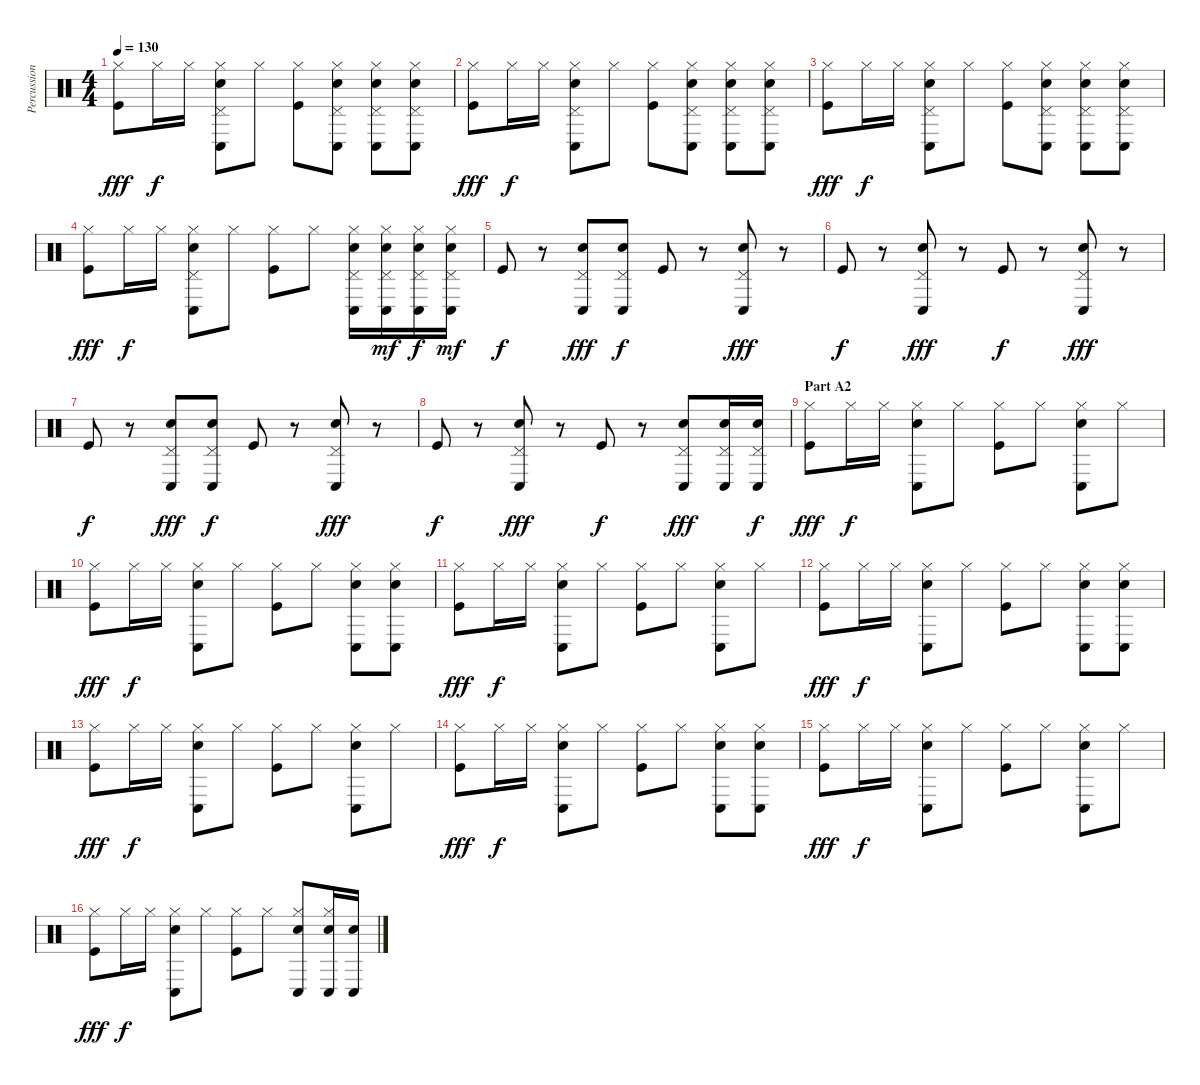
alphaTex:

\track ("Percussion" "Percussion") {instrument percussion}
\staff {score}
\articulation defaults
\ts (4 4)
\tempo 130
\clef neutral
\ks c
("Hi-Hat (closed)" "Kick (hit)").8{dy fff} "Hi-Hat (closed)".16{dy f} "Hi-Hat (closed)".16 ("Hi-Hat (closed)" "Pedal Hi-Hat (hit)" "Conga low (hit)" "Electric Snare (hit)").8 "Hi-Hat (closed)".8 ("Hi-Hat (closed)" "Kick (hit)").8 ("Hi-Hat (closed)" "Pedal Hi-Hat (hit)" "Conga low (hit)" "Electric Snare (hit)").8 ("Hi-Hat (closed)" "Pedal Hi-Hat (hit)" "Conga low (hit)" "Electric Snare (hit)").8 ("Hi-Hat (closed)" "Pedal Hi-Hat (hit)" "Conga low (hit)" "Electric Snare (hit)").8 |
("Hi-Hat (closed)" "Kick (hit)").8{dy fff} "Hi-Hat (closed)".16{dy f} "Hi-Hat (closed)".16 ("Hi-Hat (closed)" "Pedal Hi-Hat (hit)" "Conga low (hit)" "Electric Snare (hit)").8 "Hi-Hat (closed)".8 ("Hi-Hat (closed)" "Kick (hit)").8 ("Hi-Hat (closed)" "Pedal Hi-Hat (hit)" "Conga low (hit)" "Electric Snare (hit)").8 ("Hi-Hat (closed)" "Pedal Hi-Hat (hit)" "Conga low (hit)" "Electric Snare (hit)").8 ("Hi-Hat (closed)" "Pedal Hi-Hat (hit)" "Conga low (hit)" "Electric Snare (hit)").8 |
("Hi-Hat (closed)" "Kick (hit)").8{dy fff} "Hi-Hat (closed)".16{dy f} "Hi-Hat (closed)".16 ("Hi-Hat (closed)" "Pedal Hi-Hat (hit)" "Conga low (hit)" "Electric Snare (hit)").8 "Hi-Hat (closed)".8 ("Hi-Hat (closed)" "Kick (hit)").8 ("Hi-Hat (closed)" "Pedal Hi-Hat (hit)" "Conga low (hit)" "Electric Snare (hit)").8 ("Hi-Hat (closed)" "Pedal Hi-Hat (hit)" "Conga low (hit)" "Electric Snare (hit)").8 ("Hi-Hat (closed)" "Pedal Hi-Hat (hit)" "Conga low (hit)" "Electric Snare (hit)").8 |
("Hi-Hat (closed)" "Kick (hit)").8{dy fff} "Hi-Hat (closed)".16{dy f} "Hi-Hat (closed)".16 ("Hi-Hat (closed)" "Pedal Hi-Hat (hit)" "Conga low (hit)" "Electric Snare (hit)").8 "Hi-Hat (closed)".8 ("Hi-Hat (closed)" "Kick (hit)").8 "Hi-Hat (closed)".8 ("Hi-Hat (closed)" "Pedal Hi-Hat (hit)" "Conga low (hit)" "Electric Snare (hit)").16 ("Hi-Hat (closed)" "Pedal Hi-Hat (hit)" "Conga low (hit)" "Electric Snare (hit)").16{dy mf} ("Hi-Hat (closed)" "Pedal Hi-Hat (hit)" "Conga low (hit)" "Electric Snare (hit)").16{dy f} ("Hi-Hat (closed)" "Pedal Hi-Hat (hit)" "Conga low (hit)" "Electric Snare (hit)").16{dy mf} |
"Kick (hit)".8{dy f} r.8 ("Pedal Hi-Hat (hit)" "Conga low (hit)" "Electric Snare (hit)").8{dy fff} ("Pedal Hi-Hat (hit)" "Conga low (hit)" "Electric Snare (hit)").8{dy f} "Kick (hit)".8 r.8 ("Pedal Hi-Hat (hit)" "Conga low (hit)" "Electric Snare (hit)").8{dy fff} r.8 |
"Kick (hit)".8{dy f} r.8 ("Pedal Hi-Hat (hit)" "Conga low (hit)" "Electric Snare (hit)").8{dy fff} r.8 "Kick (hit)".8{dy f} r.8 ("Pedal Hi-Hat (hit)" "Conga low (hit)" "Electric Snare (hit)").8{dy fff} r.8 |
"Kick (hit)".8{dy f} r.8 ("Pedal Hi-Hat (hit)" "Conga low (hit)" "Electric Snare (hit)").8{dy fff} ("Pedal Hi-Hat (hit)" "Conga low (hit)" "Electric Snare (hit)").8{dy f} "Kick (hit)".8 r.8 ("Pedal Hi-Hat (hit)" "Conga low (hit)" "Electric Snare (hit)").8{dy fff} r.8 |
"Kick (hit)".8{dy f} r.8 ("Pedal Hi-Hat (hit)" "Conga low (hit)" "Electric Snare (hit)").8{dy fff} r.8 "Kick (hit)".8{dy f} r.8 ("Pedal Hi-Hat (hit)" "Conga low (hit)" "Electric Snare (hit)").8{dy fff} ("Pedal Hi-Hat (hit)" "Conga low (hit)" "Electric Snare (hit)").16 ("Pedal Hi-Hat (hit)" "Conga low (hit)" "Electric Snare (hit)").16{dy f} |
\section ("" "Part A2")
("Hi-Hat (closed)" "Kick (hit)").8{dy fff} "Hi-Hat (closed)".16{dy f} "Hi-Hat (closed)".16 ("Hi-Hat (closed)" "Conga low (hit)" "Electric Snare (hit)").8 "Hi-Hat (closed)".8 ("Hi-Hat (closed)" "Kick (hit)").8 "Hi-Hat (closed)".8 ("Hi-Hat (closed)" "Conga low (hit)" "Electric Snare (hit)").8 "Hi-Hat (closed)".8 |
("Hi-Hat (closed)" "Kick (hit)").8{dy fff} "Hi-Hat (closed)".16{dy f} "Hi-Hat (closed)".16 ("Hi-Hat (closed)" "Conga low (hit)" "Electric Snare (hit)").8 "Hi-Hat (closed)".8 ("Hi-Hat (closed)" "Kick (hit)").8 "Hi-Hat (closed)".8 ("Hi-Hat (closed)" "Conga low (hit)" "Electric Snare (hit)").8 ("Hi-Hat (closed)" "Conga low (hit)" "Electric Snare (hit)").8 |
("Hi-Hat (closed)" "Kick (hit)").8{dy fff} "Hi-Hat (closed)".16{dy f} "Hi-Hat (closed)".16 ("Hi-Hat (closed)" "Conga low (hit)" "Electric Snare (hit)").8 "Hi-Hat (closed)".8 ("Hi-Hat (closed)" "Kick (hit)").8 "Hi-Hat (closed)".8 ("Hi-Hat (closed)" "Conga low (hit)" "Electric Snare (hit)").8 "Hi-Hat (closed)".8 |
("Hi-Hat (closed)" "Kick (hit)").8{dy fff} "Hi-Hat (closed)".16{dy f} "Hi-Hat (closed)".16 ("Hi-Hat (closed)" "Conga low (hit)" "Electric Snare (hit)").8 "Hi-Hat (closed)".8 ("Hi-Hat (closed)" "Kick (hit)").8 "Hi-Hat (closed)".8 ("Hi-Hat (closed)" "Conga low (hit)" "Electric Snare (hit)").8 ("Hi-Hat (closed)" "Conga low (hit)" "Electric Snare (hit)").8 |
("Hi-Hat (closed)" "Kick (hit)").8{dy fff} "Hi-Hat (closed)".16{dy f} "Hi-Hat (closed)".16 ("Hi-Hat (closed)" "Conga low (hit)" "Electric Snare (hit)").8 "Hi-Hat (closed)".8 ("Hi-Hat (closed)" "Kick (hit)").8 "Hi-Hat (closed)".8 ("Hi-Hat (closed)" "Conga low (hit)" "Electric Snare (hit)").8 "Hi-Hat (closed)".8 |
("Hi-Hat (closed)" "Kick (hit)").8{dy fff} "Hi-Hat (closed)".16{dy f} "Hi-Hat (closed)".16 ("Hi-Hat (closed)" "Conga low (hit)" "Electric Snare (hit)").8 "Hi-Hat (closed)".8 ("Hi-Hat (closed)" "Kick (hit)").8 "Hi-Hat (closed)".8 ("Hi-Hat (closed)" "Conga low (hit)" "Electric Snare (hit)").8 ("Hi-Hat (closed)" "Conga low (hit)" "Electric Snare (hit)").8 |
("Hi-Hat (closed)" "Kick (hit)").8{dy fff} "Hi-Hat (closed)".16{dy f} "Hi-Hat (closed)".16 ("Hi-Hat (closed)" "Conga low (hit)" "Electric Snare (hit)").8 "Hi-Hat (closed)".8 ("Hi-Hat (closed)" "Kick (hit)").8 "Hi-Hat (closed)".8 ("Hi-Hat (closed)" "Conga low (hit)" "Electric Snare (hit)").8 "Hi-Hat (closed)".8 |
("Hi-Hat (closed)" "Kick (hit)").8{dy fff} "Hi-Hat (closed)".16{dy f} "Hi-Hat (closed)".16 ("Hi-Hat (closed)" "Conga low (hit)" "Electric Snare (hit)").8 "Hi-Hat (closed)".8 ("Hi-Hat (closed)" "Kick (hit)").8 "Hi-Hat (closed)".8 ("Hi-Hat (closed)" "Conga low (hit)" "Electric Snare (hit)").8 ("Hi-Hat (closed)" "Conga low (hit)" "Electric Snare (hit)").16 ("Conga low (hit)" "Electric Snare (hit)").16
